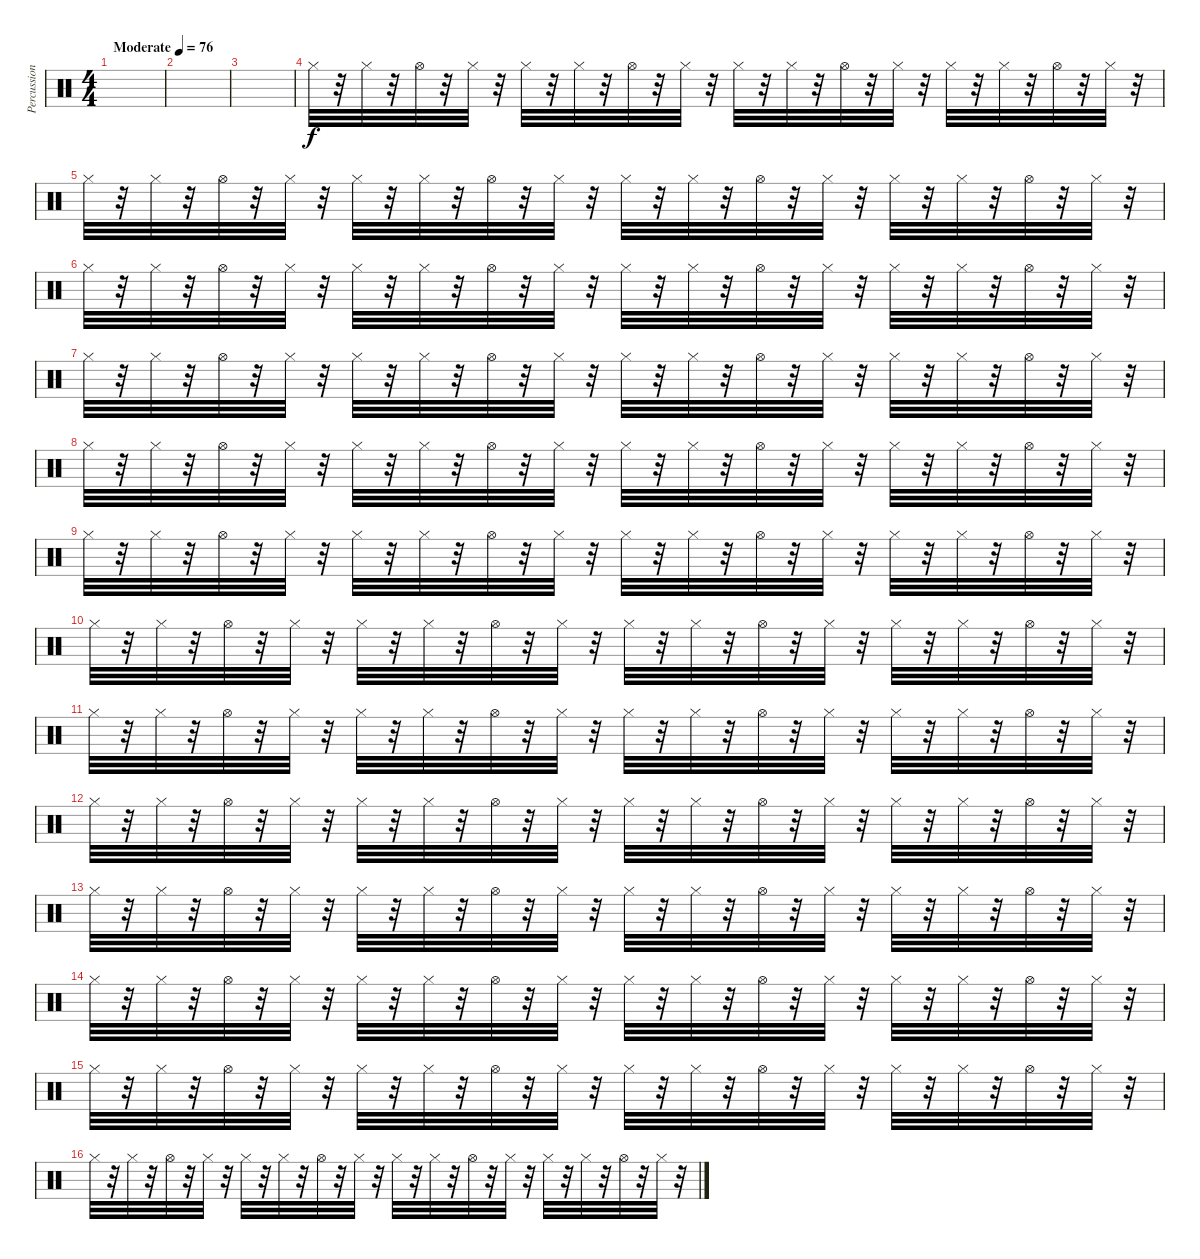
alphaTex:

\track ("Percussioni" "Percussion") {instrument percussion}
\staff {score}
\articulation defaults
\ts (4 4)
\tempo (76 "Moderate")
\clef neutral
\ks c
|
|
|
"Hi-Hat (closed)".32 r.32 "Hi-Hat (closed)".32 r.32 "Hi-Hat (open)".32 r.32 "Hi-Hat (closed)".32 r.32 "Hi-Hat (closed)".32 r.32 "Hi-Hat (closed)".32 r.32 "Hi-Hat (open)".32 r.32 "Hi-Hat (closed)".32 r.32 "Hi-Hat (closed)".32 r.32 "Hi-Hat (closed)".32 r.32 "Hi-Hat (open)".32 r.32 "Hi-Hat (closed)".32 r.32 "Hi-Hat (closed)".32 r.32 "Hi-Hat (closed)".32 r.32 "Hi-Hat (open)".32 r.32 "Hi-Hat (closed)".32 r.32 |
"Hi-Hat (closed)".32 r.32 "Hi-Hat (closed)".32 r.32 "Hi-Hat (open)".32 r.32 "Hi-Hat (closed)".32 r.32 "Hi-Hat (closed)".32 r.32 "Hi-Hat (closed)".32 r.32 "Hi-Hat (open)".32 r.32 "Hi-Hat (closed)".32 r.32 "Hi-Hat (closed)".32 r.32 "Hi-Hat (closed)".32 r.32 "Hi-Hat (open)".32 r.32 "Hi-Hat (closed)".32 r.32 "Hi-Hat (closed)".32 r.32 "Hi-Hat (closed)".32 r.32 "Hi-Hat (open)".32 r.32 "Hi-Hat (closed)".32 r.32 |
"Hi-Hat (closed)".32 r.32 "Hi-Hat (closed)".32 r.32 "Hi-Hat (open)".32 r.32 "Hi-Hat (closed)".32 r.32 "Hi-Hat (closed)".32 r.32 "Hi-Hat (closed)".32 r.32 "Hi-Hat (open)".32 r.32 "Hi-Hat (closed)".32 r.32 "Hi-Hat (closed)".32 r.32 "Hi-Hat (closed)".32 r.32 "Hi-Hat (open)".32 r.32 "Hi-Hat (closed)".32 r.32 "Hi-Hat (closed)".32 r.32 "Hi-Hat (closed)".32 r.32 "Hi-Hat (open)".32 r.32 "Hi-Hat (closed)".32 r.32 |
"Hi-Hat (closed)".32 r.32 "Hi-Hat (closed)".32 r.32 "Hi-Hat (open)".32 r.32 "Hi-Hat (closed)".32 r.32 "Hi-Hat (closed)".32 r.32 "Hi-Hat (closed)".32 r.32 "Hi-Hat (open)".32 r.32 "Hi-Hat (closed)".32 r.32 "Hi-Hat (closed)".32 r.32 "Hi-Hat (closed)".32 r.32 "Hi-Hat (open)".32 r.32 "Hi-Hat (closed)".32 r.32 "Hi-Hat (closed)".32 r.32 "Hi-Hat (closed)".32 r.32 "Hi-Hat (open)".32 r.32 "Hi-Hat (closed)".32 r.32 |
"Hi-Hat (closed)".32 r.32 "Hi-Hat (closed)".32 r.32 "Hi-Hat (open)".32 r.32 "Hi-Hat (closed)".32 r.32 "Hi-Hat (closed)".32 r.32 "Hi-Hat (closed)".32 r.32 "Hi-Hat (open)".32 r.32 "Hi-Hat (closed)".32 r.32 "Hi-Hat (closed)".32 r.32 "Hi-Hat (closed)".32 r.32 "Hi-Hat (open)".32 r.32 "Hi-Hat (closed)".32 r.32 "Hi-Hat (closed)".32 r.32 "Hi-Hat (closed)".32 r.32 "Hi-Hat (open)".32 r.32 "Hi-Hat (closed)".32 r.32 |
"Hi-Hat (closed)".32 r.32 "Hi-Hat (closed)".32 r.32 "Hi-Hat (open)".32 r.32 "Hi-Hat (closed)".32 r.32 "Hi-Hat (closed)".32 r.32 "Hi-Hat (closed)".32 r.32 "Hi-Hat (open)".32 r.32 "Hi-Hat (closed)".32 r.32 "Hi-Hat (closed)".32 r.32 "Hi-Hat (closed)".32 r.32 "Hi-Hat (open)".32 r.32 "Hi-Hat (closed)".32 r.32 "Hi-Hat (closed)".32 r.32 "Hi-Hat (closed)".32 r.32 "Hi-Hat (open)".32 r.32 "Hi-Hat (closed)".32 r.32 |
"Hi-Hat (closed)".32 r.32 "Hi-Hat (closed)".32 r.32 "Hi-Hat (open)".32 r.32 "Hi-Hat (closed)".32 r.32 "Hi-Hat (closed)".32 r.32 "Hi-Hat (closed)".32 r.32 "Hi-Hat (open)".32 r.32 "Hi-Hat (closed)".32 r.32 "Hi-Hat (closed)".32 r.32 "Hi-Hat (closed)".32 r.32 "Hi-Hat (open)".32 r.32 "Hi-Hat (closed)".32 r.32 "Hi-Hat (closed)".32 r.32 "Hi-Hat (closed)".32 r.32 "Hi-Hat (open)".32 r.32 "Hi-Hat (closed)".32 r.32 |
"Hi-Hat (closed)".32 r.32 "Hi-Hat (closed)".32 r.32 "Hi-Hat (open)".32 r.32 "Hi-Hat (closed)".32 r.32 "Hi-Hat (closed)".32 r.32 "Hi-Hat (closed)".32 r.32 "Hi-Hat (open)".32 r.32 "Hi-Hat (closed)".32 r.32 "Hi-Hat (closed)".32 r.32 "Hi-Hat (closed)".32 r.32 "Hi-Hat (open)".32 r.32 "Hi-Hat (closed)".32 r.32 "Hi-Hat (closed)".32 r.32 "Hi-Hat (closed)".32 r.32 "Hi-Hat (open)".32 r.32 "Hi-Hat (closed)".32 r.32 |
"Hi-Hat (closed)".32 r.32 "Hi-Hat (closed)".32 r.32 "Hi-Hat (open)".32 r.32 "Hi-Hat (closed)".32 r.32 "Hi-Hat (closed)".32 r.32 "Hi-Hat (closed)".32 r.32 "Hi-Hat (open)".32 r.32 "Hi-Hat (closed)".32 r.32 "Hi-Hat (closed)".32 r.32 "Hi-Hat (closed)".32 r.32 "Hi-Hat (open)".32 r.32 "Hi-Hat (closed)".32 r.32 "Hi-Hat (closed)".32 r.32 "Hi-Hat (closed)".32 r.32 "Hi-Hat (open)".32 r.32 "Hi-Hat (closed)".32 r.32 |
"Hi-Hat (closed)".32 r.32 "Hi-Hat (closed)".32 r.32 "Hi-Hat (open)".32 r.32 "Hi-Hat (closed)".32 r.32 "Hi-Hat (closed)".32 r.32 "Hi-Hat (closed)".32 r.32 "Hi-Hat (open)".32 r.32 "Hi-Hat (closed)".32 r.32 "Hi-Hat (closed)".32 r.32 "Hi-Hat (closed)".32 r.32 "Hi-Hat (open)".32 r.32 "Hi-Hat (closed)".32 r.32 "Hi-Hat (closed)".32 r.32 "Hi-Hat (closed)".32 r.32 "Hi-Hat (open)".32 r.32 "Hi-Hat (closed)".32 r.32 |
"Hi-Hat (closed)".32 r.32 "Hi-Hat (closed)".32 r.32 "Hi-Hat (open)".32 r.32 "Hi-Hat (closed)".32 r.32 "Hi-Hat (closed)".32 r.32 "Hi-Hat (closed)".32 r.32 "Hi-Hat (open)".32 r.32 "Hi-Hat (closed)".32 r.32 "Hi-Hat (closed)".32 r.32 "Hi-Hat (closed)".32 r.32 "Hi-Hat (open)".32 r.32 "Hi-Hat (closed)".32 r.32 "Hi-Hat (closed)".32 r.32 "Hi-Hat (closed)".32 r.32 "Hi-Hat (open)".32 r.32 "Hi-Hat (closed)".32 r.32 |
"Hi-Hat (closed)".32 r.32 "Hi-Hat (closed)".32 r.32 "Hi-Hat (open)".32 r.32 "Hi-Hat (closed)".32 r.32 "Hi-Hat (closed)".32 r.32 "Hi-Hat (closed)".32 r.32 "Hi-Hat (open)".32 r.32 "Hi-Hat (closed)".32 r.32 "Hi-Hat (closed)".32 r.32 "Hi-Hat (closed)".32 r.32 "Hi-Hat (open)".32 r.32 "Hi-Hat (closed)".32 r.32 "Hi-Hat (closed)".32 r.32 "Hi-Hat (closed)".32 r.32 "Hi-Hat (open)".32 r.32 "Hi-Hat (closed)".32 r.32 |
"Hi-Hat (closed)".32 r.32 "Hi-Hat (closed)".32 r.32 "Hi-Hat (open)".32 r.32 "Hi-Hat (closed)".32 r.32 "Hi-Hat (closed)".32 r.32 "Hi-Hat (closed)".32 r.32 "Hi-Hat (open)".32 r.32 "Hi-Hat (closed)".32 r.32 "Hi-Hat (closed)".32 r.32 "Hi-Hat (closed)".32 r.32 "Hi-Hat (open)".32 r.32 "Hi-Hat (closed)".32 r.32 "Hi-Hat (closed)".32 r.32 "Hi-Hat (closed)".32 r.32 "Hi-Hat (open)".32 r.32 "Hi-Hat (closed)".32 r.32
